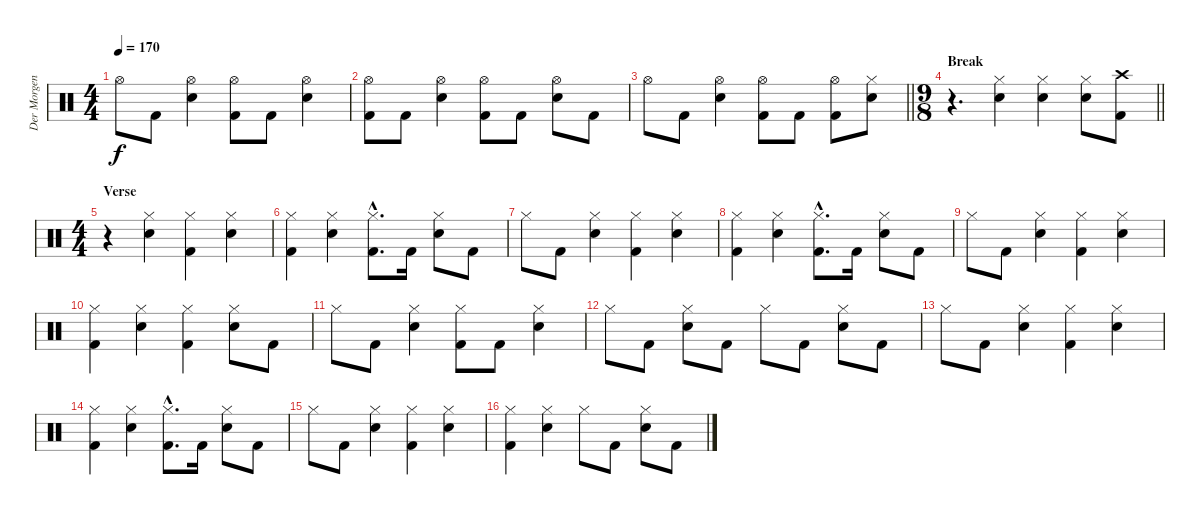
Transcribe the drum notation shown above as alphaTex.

\track ("Der Morgenstern" "Der Morgen") {instrument percussion}
\staff {score}
\articulation defaults
\ts (4 4)
\tempo 170
\clef neutral
\ks c "Hi-Hat (open)".8{dy f} "Kick (hit) 2".8
("Hi-Hat (open)" "Electric Snare (hit)").4 ("Hi-Hat (open)" "Kick (hit) 2").8 "Kick (hit) 2".8 ("Hi-Hat (open)" "Electric Snare (hit)").4 |
("Hi-Hat (open)" "Kick (hit) 2").8 "Kick (hit) 2".8 ("Hi-Hat (open)" "Electric Snare (hit)").4 ("Hi-Hat (open)" "Kick (hit) 2").8 "Kick (hit) 2".8 ("Hi-Hat (open)" "Electric Snare (hit)").8 "Kick (hit) 2".8 |
\barLineRight lightlight "Hi-Hat (open)".8 "Kick (hit) 2".8
("Hi-Hat (open)" "Electric Snare (hit)").4 ("Hi-Hat (open)" "Kick (hit) 2").8 "Kick (hit) 2".8 ("Hi-Hat (open)" "Kick (hit) 2").8 ("Hi-Hat (closed)" "Electric Snare (hit)").8 |
\ts (9 8)
\section ("" "Break")
\barLineRight lightlight
r.4{d} ("Hi-Hat (closed)" "Electric Snare (hit)").4 ("Hi-Hat (closed)" "Electric Snare (hit)").4 ("Hi-Hat (closed)" "Electric Snare (hit)").8 ("Crash high (hit)" "Kick (hit) 2").8 |
\ts (4 4)
\section ("" "Verse")
r.4 ("Hi-Hat (closed)" "Electric Snare (hit)").4 ("Hi-Hat (closed)" "Kick (hit) 2").4 ("Hi-Hat (closed)" "Electric Snare (hit)").4 |
("Hi-Hat (closed)" "Kick (hit) 2").4 ("Hi-Hat (closed)" "Electric Snare (hit)").4 ("Hi-Hat (closed)"{hac} "Kick (hit) 2"{hac}).8{d} "Kick (hit) 2".16 ("Hi-Hat (closed)" "Electric Snare (hit)").8 "Kick (hit) 2".8 |
"Hi-Hat (closed)".8 "Kick (hit) 2".8 ("Hi-Hat (closed)" "Electric Snare (hit)").4 ("Hi-Hat (closed)" "Kick (hit) 2").4 ("Hi-Hat (closed)" "Electric Snare (hit)").4 |
("Hi-Hat (closed)" "Kick (hit) 2").4 ("Hi-Hat (closed)" "Electric Snare (hit)").4 ("Hi-Hat (closed)"{hac} "Kick (hit) 2"{hac}).8{d} "Kick (hit) 2".16 ("Hi-Hat (closed)" "Electric Snare (hit)").8 "Kick (hit) 2".8 |
"Hi-Hat (closed)".8 "Kick (hit) 2".8 ("Hi-Hat (closed)" "Electric Snare (hit)").4 ("Hi-Hat (closed)" "Kick (hit) 2").4 ("Hi-Hat (closed)" "Electric Snare (hit)").4 |
("Hi-Hat (closed)" "Kick (hit) 2").4 ("Hi-Hat (closed)" "Electric Snare (hit)").4 ("Hi-Hat (closed)" "Kick (hit) 2").4 ("Hi-Hat (closed)" "Electric Snare (hit)").8 "Kick (hit) 2".8 |
"Hi-Hat (closed)".8 "Kick (hit) 2".8 ("Hi-Hat (closed)" "Electric Snare (hit)").4 ("Hi-Hat (closed)" "Kick (hit) 2").8 "Kick (hit) 2".8 ("Hi-Hat (closed)" "Electric Snare (hit)").4 |
"Hi-Hat (closed)".8 "Kick (hit) 2".8 ("Hi-Hat (closed)" "Electric Snare (hit)").8 "Kick (hit) 2".8 "Hi-Hat (closed)".8 "Kick (hit) 2".8 ("Hi-Hat (closed)" "Electric Snare (hit)").8 "Kick (hit) 2".8 |
"Hi-Hat (closed)".8 "Kick (hit) 2".8 ("Hi-Hat (closed)" "Electric Snare (hit)").4 ("Hi-Hat (closed)" "Kick (hit) 2").4 ("Hi-Hat (closed)" "Electric Snare (hit)").4 |
("Hi-Hat (closed)" "Kick (hit) 2").4 ("Hi-Hat (closed)" "Electric Snare (hit)").4 ("Hi-Hat (closed)"{hac} "Kick (hit) 2"{hac}).8{d} "Kick (hit) 2".16 ("Hi-Hat (closed)" "Electric Snare (hit)").8 "Kick (hit) 2".8 |
"Hi-Hat (closed)".8 "Kick (hit) 2".8 ("Hi-Hat (closed)" "Electric Snare (hit)").4 ("Hi-Hat (closed)" "Kick (hit) 2").4 ("Hi-Hat (closed)" "Electric Snare (hit)").4 |
("Hi-Hat (closed)" "Kick (hit) 2").4 ("Hi-Hat (closed)" "Electric Snare (hit)").4 "Hi-Hat (closed)".8 "Kick (hit) 2".8 ("Hi-Hat (closed)" "Electric Snare (hit)").8 "Kick (hit) 2".8
